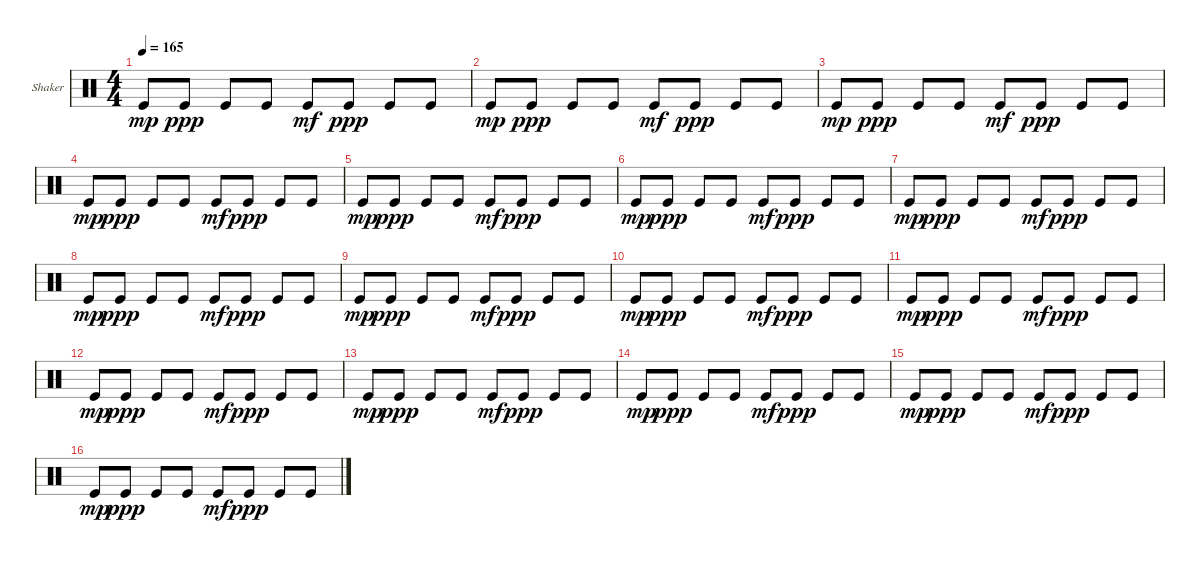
\defaultSystemsLayout 4
\bracketExtendMode groupsimilarinstruments
\firstSystemTrackNameOrientation horizontal
\otherSystemsTrackNameOrientation horizontal
\track ("Shaker" "Shaker") {instrument percussion}
\staff {score}
\articulation defaults
\ts (4 4)
\tempo 165
\clef neutral
\ks c "Kick (hit)".8{dy mp} "Kick (hit)".8{dy ppp} "Kick (hit)".8 "Kick (hit)".8 "Kick (hit)".8{dy mf} "Kick (hit)".8{dy ppp} "Kick (hit)".8 "Kick (hit)".8
|
"Kick (hit)".8{dy mp} "Kick (hit)".8{dy ppp} "Kick (hit)".8 "Kick (hit)".8 "Kick (hit)".8{dy mf} "Kick (hit)".8{dy ppp} "Kick (hit)".8 "Kick (hit)".8 |
"Kick (hit)".8{dy mp} "Kick (hit)".8{dy ppp} "Kick (hit)".8 "Kick (hit)".8 "Kick (hit)".8{dy mf} "Kick (hit)".8{dy ppp} "Kick (hit)".8 "Kick (hit)".8 |
"Kick (hit)".8{dy mp} "Kick (hit)".8{dy ppp} "Kick (hit)".8 "Kick (hit)".8 "Kick (hit)".8{dy mf} "Kick (hit)".8{dy ppp} "Kick (hit)".8 "Kick (hit)".8 |
"Kick (hit)".8{dy mp} "Kick (hit)".8{dy ppp} "Kick (hit)".8 "Kick (hit)".8 "Kick (hit)".8{dy mf} "Kick (hit)".8{dy ppp} "Kick (hit)".8 "Kick (hit)".8 |
"Kick (hit)".8{dy mp} "Kick (hit)".8{dy ppp} "Kick (hit)".8 "Kick (hit)".8 "Kick (hit)".8{dy mf} "Kick (hit)".8{dy ppp} "Kick (hit)".8 "Kick (hit)".8 |
"Kick (hit)".8{dy mp} "Kick (hit)".8{dy ppp} "Kick (hit)".8 "Kick (hit)".8 "Kick (hit)".8{dy mf} "Kick (hit)".8{dy ppp} "Kick (hit)".8 "Kick (hit)".8 |
"Kick (hit)".8{dy mp} "Kick (hit)".8{dy ppp} "Kick (hit)".8 "Kick (hit)".8 "Kick (hit)".8{dy mf} "Kick (hit)".8{dy ppp} "Kick (hit)".8 "Kick (hit)".8 |
"Kick (hit)".8{dy mp} "Kick (hit)".8{dy ppp} "Kick (hit)".8 "Kick (hit)".8 "Kick (hit)".8{dy mf} "Kick (hit)".8{dy ppp} "Kick (hit)".8 "Kick (hit)".8 |
"Kick (hit)".8{dy mp} "Kick (hit)".8{dy ppp} "Kick (hit)".8 "Kick (hit)".8 "Kick (hit)".8{dy mf} "Kick (hit)".8{dy ppp} "Kick (hit)".8 "Kick (hit)".8 |
"Kick (hit)".8{dy mp} "Kick (hit)".8{dy ppp} "Kick (hit)".8 "Kick (hit)".8 "Kick (hit)".8{dy mf} "Kick (hit)".8{dy ppp} "Kick (hit)".8 "Kick (hit)".8 |
"Kick (hit)".8{dy mp} "Kick (hit)".8{dy ppp} "Kick (hit)".8 "Kick (hit)".8 "Kick (hit)".8{dy mf} "Kick (hit)".8{dy ppp} "Kick (hit)".8 "Kick (hit)".8 |
"Kick (hit)".8{dy mp} "Kick (hit)".8{dy ppp} "Kick (hit)".8 "Kick (hit)".8 "Kick (hit)".8{dy mf} "Kick (hit)".8{dy ppp} "Kick (hit)".8 "Kick (hit)".8 |
"Kick (hit)".8{dy mp} "Kick (hit)".8{dy ppp} "Kick (hit)".8 "Kick (hit)".8 "Kick (hit)".8{dy mf} "Kick (hit)".8{dy ppp} "Kick (hit)".8 "Kick (hit)".8 |
"Kick (hit)".8{dy mp} "Kick (hit)".8{dy ppp} "Kick (hit)".8 "Kick (hit)".8 "Kick (hit)".8{dy mf} "Kick (hit)".8{dy ppp} "Kick (hit)".8 "Kick (hit)".8 |
"Kick (hit)".8{dy mp} "Kick (hit)".8{dy ppp} "Kick (hit)".8 "Kick (hit)".8 "Kick (hit)".8{dy mf} "Kick (hit)".8{dy ppp} "Kick (hit)".8 "Kick (hit)".8
